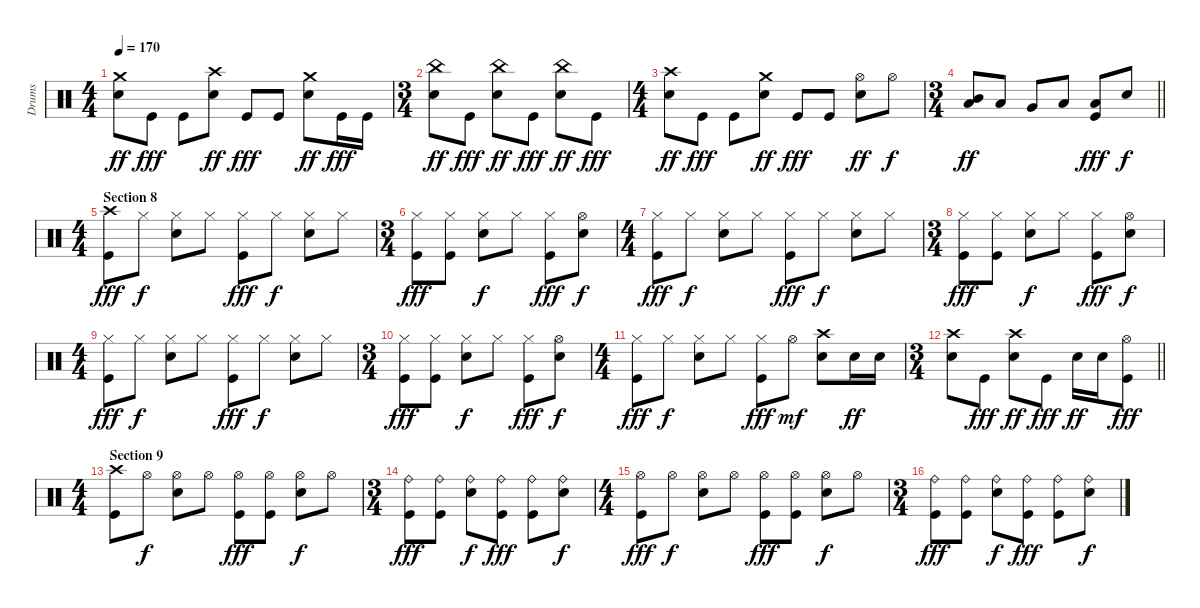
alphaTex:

\track ("Drums" "Drums") {instrument percussion}
\staff {score}
\articulation defaults
\ts (4 4)
\tempo 170
\clef neutral
\ks c
("Crash medium (hit)" "Snare (hit) 2").8{dy ff} "Kick (hit)".8{dy fff} "Kick (hit)".8 ("Crash high (hit)" "Snare (hit) 2").8{dy ff} "Kick (hit)".8{dy fff} "Kick (hit)".8 ("Crash medium (hit)" "Snare (hit) 2").8{dy ff} "Kick (hit)".16{dy fff} "Kick (hit)".16 |
\ts (3 4)
("China (hit)" "Snare (hit) 2").8{dy ff} "Kick (hit)".8{dy fff} ("China (hit)" "Snare (hit) 2").8{dy ff} "Kick (hit)".8{dy fff} ("China (hit)" "Snare (hit) 2").8{dy ff} "Kick (hit)".8{dy fff} |
\ts (4 4)
("Crash high (hit)" "Snare (hit) 2").8{dy ff} "Kick (hit)".8{dy fff} "Kick (hit)".8 ("Crash medium (hit)" "Snare (hit) 2").8{dy ff} "Kick (hit)".8{dy fff} "Kick (hit)".8 ("Hi-Hat (open)" "Snare (hit) 2").8{dy ff} "Hi-Hat (open)".8{dy f} |
\ts (3 4)
\barLineRight lightlight
("Mid Tom (hit)" "Low Tom (hit)").8{bd 120 dy ff} "Low Tom (hit)".8 "Very Low Tom (hit)".8 "Low Floor Tom (hit)".8 ("Low Floor Tom (hit)" "Kick (hit)").8{dy fff} "Snare (hit) 2".8{dy f} |
\ts (4 4)
\section ("" "Section 8")
("Crash high (hit)" "Kick (hit)").8{dy fff} "Hi-Hat (closed)".8{dy f} ("Hi-Hat (closed)" "Snare (hit) 2").8 "Hi-Hat (closed)".8 ("Hi-Hat (closed)" "Kick (hit)").8{dy fff} "Hi-Hat (closed)".8{dy f} ("Hi-Hat (closed)" "Snare (hit) 2").8 "Hi-Hat (closed)".8 |
\ts (3 4)
("Hi-Hat (closed)" "Kick (hit)").8{dy fff} ("Hi-Hat (closed)" "Kick (hit)").8 ("Hi-Hat (closed)" "Snare (hit) 2").8{dy f} "Hi-Hat (closed)".8 ("Hi-Hat (closed)" "Kick (hit)").8{dy fff} ("Hi-Hat (open)" "Snare (hit) 2").8{dy f} |
\ts (4 4)
("Hi-Hat (closed)" "Kick (hit)").8{dy fff} "Hi-Hat (closed)".8{dy f} ("Hi-Hat (closed)" "Snare (hit) 2").8 "Hi-Hat (closed)".8 ("Hi-Hat (closed)" "Kick (hit)").8{dy fff} "Hi-Hat (closed)".8{dy f} ("Hi-Hat (closed)" "Snare (hit) 2").8 "Hi-Hat (closed)".8 |
\ts (3 4)
("Hi-Hat (closed)" "Kick (hit)").8{dy fff} ("Hi-Hat (closed)" "Kick (hit)").8 ("Hi-Hat (closed)" "Snare (hit) 2").8{dy f} "Hi-Hat (closed)".8 ("Hi-Hat (closed)" "Kick (hit)").8{dy fff} ("Hi-Hat (open)" "Snare (hit) 2").8{dy f} |
\ts (4 4)
("Hi-Hat (closed)" "Kick (hit)").8{dy fff} "Hi-Hat (closed)".8{dy f} ("Hi-Hat (closed)" "Snare (hit) 2").8 "Hi-Hat (closed)".8 ("Hi-Hat (closed)" "Kick (hit)").8{dy fff} "Hi-Hat (closed)".8{dy f} ("Hi-Hat (closed)" "Snare (hit) 2").8 "Hi-Hat (closed)".8 |
\ts (3 4)
("Hi-Hat (closed)" "Kick (hit)").8{dy fff} ("Hi-Hat (closed)" "Kick (hit)").8 ("Hi-Hat (closed)" "Snare (hit) 2").8{dy f} "Hi-Hat (closed)".8 ("Hi-Hat (closed)" "Kick (hit)").8{dy fff} ("Hi-Hat (open)" "Snare (hit) 2").8{dy f} |
\ts (4 4)
("Hi-Hat (closed)" "Kick (hit)").8{dy fff} "Hi-Hat (closed)".8{dy f} ("Hi-Hat (closed)" "Snare (hit) 2").8 "Hi-Hat (closed)".8 ("Hi-Hat (closed)" "Kick (hit)").8{dy fff} "Hi-Hat (open)".8{dy mf} ("Crash high (hit)" "Snare (hit) 2").8 "Snare (hit) 2".16{dy ff} "Snare (hit) 2".16 |
\ts (3 4)
\barLineRight lightlight
("Crash high (hit)" "Snare (hit) 2").8 "Kick (hit)".8{dy fff} ("Crash high (hit)" "Snare (hit) 2").8{dy ff} "Kick (hit)".8{dy fff} "Snare (hit) 2".16{dy ff} "Snare (hit) 2".16 ("Hi-Hat (open)" "Kick (hit)").8{dy fff} |
\ts (4 4)
\section ("" "Section 9")
("Crash high (hit)" "Kick (hit)").8 "Hi-Hat (open)".8{dy f} ("Hi-Hat (open)" "Snare (hit) 2").8 "Hi-Hat (open)".8 ("Hi-Hat (open)" "Kick (hit)").8{dy fff} ("Hi-Hat (open)" "Kick (hit)").8 ("Hi-Hat (open)" "Snare (hit) 2").8{dy f} "Hi-Hat (open)".8 |
\ts (3 4)
("Ride (bell)" "Kick (hit)").8{dy fff} ("Ride (bell)" "Kick (hit)").8 ("Ride (bell)" "Snare (hit) 2").8{dy f} ("Ride (bell)" "Kick (hit)").8{dy fff} ("Ride (bell)" "Kick (hit)").8 ("Ride (bell)" "Snare (hit) 2").8{dy f} |
\ts (4 4)
("Hi-Hat (open)" "Kick (hit)").8{dy fff} "Hi-Hat (open)".8{dy f} ("Hi-Hat (open)" "Snare (hit) 2").8 "Hi-Hat (open)".8 ("Hi-Hat (open)" "Kick (hit)").8{dy fff} ("Hi-Hat (open)" "Kick (hit)").8 ("Hi-Hat (open)" "Snare (hit) 2").8{dy f} "Hi-Hat (open)".8 |
\ts (3 4)
("Ride (bell)" "Kick (hit)").8{dy fff} ("Ride (bell)" "Kick (hit)").8 ("Ride (bell)" "Snare (hit) 2").8{dy f} ("Ride (bell)" "Kick (hit)").8{dy fff} ("Ride (bell)" "Kick (hit)").8 ("Ride (bell)" "Snare (hit) 2").8{dy f}
